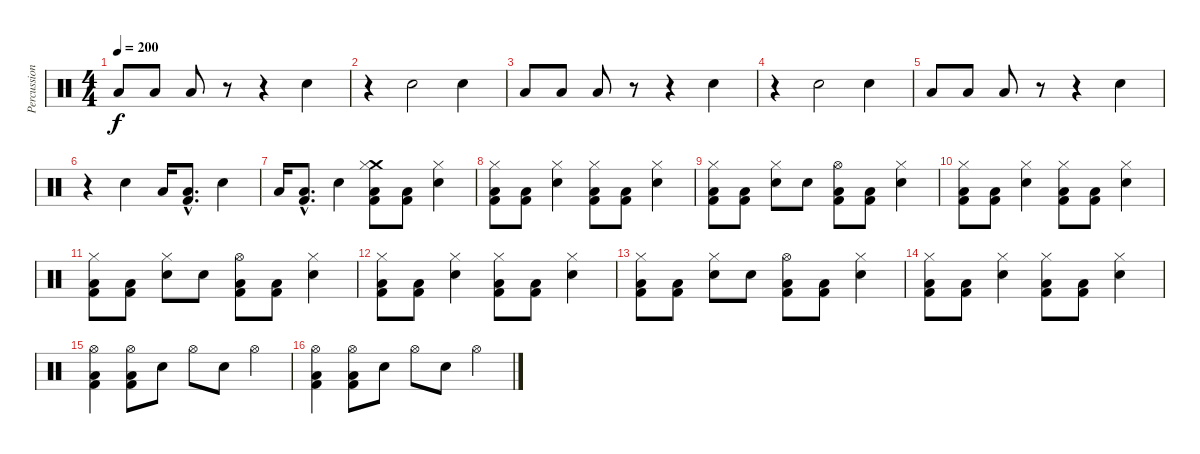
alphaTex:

\track ("Percussions" "Percussion") {instrument percussion}
\staff {score}
\articulation defaults
\ts (4 4)
\tempo 200
\clef neutral
\ks c "Low Tom (hit)".8{dy f} "Low Tom (hit)".8 "Low Tom (hit)".8
r.8 r.4 "Snare (hit) 2".4 |
r.4 "Snare (hit) 2".2 "Snare (hit) 2".4 |
"Low Tom (hit)".8 "Low Tom (hit)".8 "Low Tom (hit)".8 r.8 r.4 "Snare (hit) 2".4 |
r.4 "Snare (hit) 2".2 "Snare (hit) 2".4 |
"Low Tom (hit)".8 "Low Tom (hit)".8 "Low Tom (hit)".8 r.8 r.4 "Snare (hit) 2".4 |
r.4 "Snare (hit) 2".4 "Low Tom (hit)".16 ("Kick (hit) 2"{hac} "Low Floor Tom (hit)"{hac}).8{d} "Snare (hit) 2".4 |
"Low Tom (hit)".16 ("Kick (hit) 2"{hac} "Low Floor Tom (hit)"{hac}).8{d} "Snare (hit) 2".4 ("Kick (hit) 2" "Low Floor Tom (hit)" "Crash medium (hit)" "Hi-Hat (closed)").8 ("Kick (hit) 2" "Low Floor Tom (hit)").8 ("Snare (hit) 2" "Hi-Hat (closed)").4 |
("Kick (hit) 2" "Low Floor Tom (hit)" "Hi-Hat (closed)").8 ("Kick (hit) 2" "Low Floor Tom (hit)").8 ("Snare (hit) 2" "Hi-Hat (closed)").4 ("Kick (hit) 2" "Low Floor Tom (hit)" "Hi-Hat (closed)").8 ("Kick (hit) 2" "Low Floor Tom (hit)").8 ("Snare (hit) 2" "Hi-Hat (closed)").4 |
("Kick (hit) 2" "Low Floor Tom (hit)" "Hi-Hat (closed)").8 ("Kick (hit) 2" "Low Floor Tom (hit)").8 ("Snare (hit) 2" "Hi-Hat (closed)").8 "Snare (hit) 2".8 ("Kick (hit) 2" "Low Floor Tom (hit)" "Hi-Hat (open)").8 ("Kick (hit) 2" "Low Floor Tom (hit)").8 ("Snare (hit) 2" "Hi-Hat (closed)").4 |
("Kick (hit) 2" "Low Floor Tom (hit)" "Hi-Hat (closed)").8 ("Kick (hit) 2" "Low Floor Tom (hit)").8 ("Snare (hit) 2" "Hi-Hat (closed)").4 ("Kick (hit) 2" "Low Floor Tom (hit)" "Hi-Hat (closed)").8 ("Kick (hit) 2" "Low Floor Tom (hit)").8 ("Snare (hit) 2" "Hi-Hat (closed)").4 |
("Kick (hit) 2" "Low Floor Tom (hit)" "Hi-Hat (closed)").8 ("Kick (hit) 2" "Low Floor Tom (hit)").8 ("Snare (hit) 2" "Hi-Hat (closed)").8 "Snare (hit) 2".8 ("Kick (hit) 2" "Low Floor Tom (hit)" "Hi-Hat (open)").8 ("Kick (hit) 2" "Low Floor Tom (hit)").8 ("Snare (hit) 2" "Hi-Hat (closed)").4 |
("Kick (hit) 2" "Low Floor Tom (hit)" "Hi-Hat (closed)").8 ("Kick (hit) 2" "Low Floor Tom (hit)").8 ("Snare (hit) 2" "Hi-Hat (closed)").4 ("Kick (hit) 2" "Low Floor Tom (hit)" "Hi-Hat (closed)").8 ("Kick (hit) 2" "Low Floor Tom (hit)").8 ("Snare (hit) 2" "Hi-Hat (closed)").4 |
("Kick (hit) 2" "Low Floor Tom (hit)" "Hi-Hat (closed)").8 ("Kick (hit) 2" "Low Floor Tom (hit)").8 ("Snare (hit) 2" "Hi-Hat (closed)").8 "Snare (hit) 2".8 ("Kick (hit) 2" "Low Floor Tom (hit)" "Hi-Hat (open)").8 ("Kick (hit) 2" "Low Floor Tom (hit)").8 ("Snare (hit) 2" "Hi-Hat (closed)").4 |
("Kick (hit) 2" "Low Floor Tom (hit)" "Hi-Hat (closed)").8 ("Kick (hit) 2" "Low Floor Tom (hit)").8 ("Snare (hit) 2" "Hi-Hat (closed)").4 ("Kick (hit) 2" "Low Floor Tom (hit)" "Hi-Hat (closed)").8 ("Kick (hit) 2" "Low Floor Tom (hit)").8 ("Snare (hit) 2" "Hi-Hat (closed)").4 |
("Kick (hit) 2" "Low Floor Tom (hit)" "Hi-Hat (open)").4 ("Kick (hit) 2" "Low Floor Tom (hit)" "Hi-Hat (open)").8 "Snare (hit) 2".8 "Hi-Hat (open)".8 "Snare (hit) 2".8 "Hi-Hat (open)".4 |
("Kick (hit) 2" "Low Floor Tom (hit)" "Hi-Hat (open)").4 ("Kick (hit) 2" "Low Floor Tom (hit)" "Hi-Hat (open)").8 "Snare (hit) 2".8 "Hi-Hat (open)".8 "Snare (hit) 2".8 "Hi-Hat (open)".4
